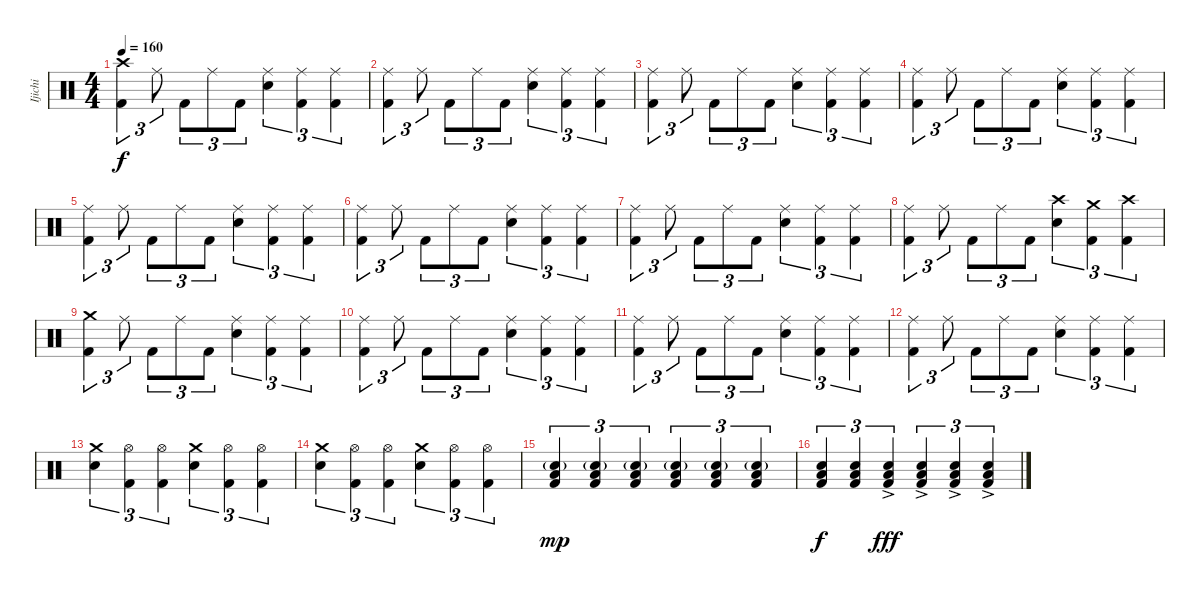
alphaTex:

\track ("Ijichi" "Ijichi") {instrument percussion}
\staff {score}
\articulation defaults
\ts (4 4)
\tempo 160
\clef neutral
\ks c
("Crash high (hit)" "Kick (hit) 2").4{tu (3 2) dy f} "Ride (middle)".8{tu (3 2)} "Kick (hit) 2".8{tu (3 2)} "Ride (middle)".8{tu (3 2)} "Kick (hit) 2".8{tu (3 2)} ("Ride (middle)" "Electric Snare (hit)").4{tu (3 2)} ("Ride (middle)" "Kick (hit) 2").4{tu (3 2)} ("Ride (middle)" "Kick (hit) 2").4{tu (3 2)} |
("Ride (middle)" "Kick (hit) 2").4{tu (3 2)} "Ride (middle)".8{tu (3 2)} "Kick (hit) 2".8{tu (3 2)} "Ride (middle)".8{tu (3 2)} "Kick (hit) 2".8{tu (3 2)} ("Ride (middle)" "Electric Snare (hit)").4{tu (3 2)} ("Ride (middle)" "Kick (hit) 2").4{tu (3 2)} ("Ride (middle)" "Kick (hit) 2").4{tu (3 2)} |
("Ride (middle)" "Kick (hit) 2").4{tu (3 2)} "Ride (middle)".8{tu (3 2)} "Kick (hit) 2".8{tu (3 2)} "Ride (middle)".8{tu (3 2)} "Kick (hit) 2".8{tu (3 2)} ("Ride (middle)" "Electric Snare (hit)").4{tu (3 2)} ("Ride (middle)" "Kick (hit) 2").4{tu (3 2)} ("Ride (middle)" "Kick (hit) 2").4{tu (3 2)} |
("Ride (middle)" "Kick (hit) 2").4{tu (3 2)} "Ride (middle)".8{tu (3 2)} "Kick (hit) 2".8{tu (3 2)} "Ride (middle)".8{tu (3 2)} "Kick (hit) 2".8{tu (3 2)} ("Ride (middle)" "Electric Snare (hit)").4{tu (3 2)} ("Ride (middle)" "Kick (hit) 2").4{tu (3 2)} ("Ride (middle)" "Kick (hit) 2").4{tu (3 2)} |
("Ride (middle)" "Kick (hit) 2").4{tu (3 2)} "Ride (middle)".8{tu (3 2)} "Kick (hit) 2".8{tu (3 2)} "Ride (middle)".8{tu (3 2)} "Kick (hit) 2".8{tu (3 2)} ("Ride (middle)" "Electric Snare (hit)").4{tu (3 2)} ("Ride (middle)" "Kick (hit) 2").4{tu (3 2)} ("Ride (middle)" "Kick (hit) 2").4{tu (3 2)} |
("Ride (middle)" "Kick (hit) 2").4{tu (3 2)} "Ride (middle)".8{tu (3 2)} "Kick (hit) 2".8{tu (3 2)} "Ride (middle)".8{tu (3 2)} "Kick (hit) 2".8{tu (3 2)} ("Ride (middle)" "Electric Snare (hit)").4{tu (3 2)} ("Ride (middle)" "Kick (hit) 2").4{tu (3 2)} ("Ride (middle)" "Kick (hit) 2").4{tu (3 2)} |
("Ride (middle)" "Kick (hit) 2").4{tu (3 2)} "Ride (middle)".8{tu (3 2)} "Kick (hit) 2".8{tu (3 2)} "Ride (middle)".8{tu (3 2)} "Kick (hit) 2".8{tu (3 2)} ("Ride (middle)" "Electric Snare (hit)").4{tu (3 2)} ("Ride (middle)" "Kick (hit) 2").4{tu (3 2)} ("Ride (middle)" "Kick (hit) 2").4{tu (3 2)} |
("Ride (middle)" "Kick (hit) 2").4{tu (3 2)} "Ride (middle)".8{tu (3 2)} "Kick (hit) 2".8{tu (3 2)} "Ride (middle)".8{tu (3 2)} "Kick (hit) 2".8{tu (3 2)} ("Crash high (hit)" "Electric Snare (hit)").4{tu (3 2)} ("Crash medium (hit)" "Kick (hit) 2").4{tu (3 2)} ("Crash high (hit)" "Kick (hit) 2").4{tu (3 2)} |
("Crash medium (hit)" "Kick (hit) 2").4{tu (3 2)} "Ride (middle)".8{tu (3 2)} "Kick (hit) 2".8{tu (3 2)} "Ride (middle)".8{tu (3 2)} "Kick (hit) 2".8{tu (3 2)} ("Ride (middle)" "Electric Snare (hit)").4{tu (3 2)} ("Ride (middle)" "Kick (hit) 2").4{tu (3 2)} ("Ride (middle)" "Kick (hit) 2").4{tu (3 2)} |
("Ride (middle)" "Kick (hit) 2").4{tu (3 2)} "Ride (middle)".8{tu (3 2)} "Kick (hit) 2".8{tu (3 2)} "Ride (middle)".8{tu (3 2)} "Kick (hit) 2".8{tu (3 2)} ("Ride (middle)" "Electric Snare (hit)").4{tu (3 2)} ("Ride (middle)" "Kick (hit) 2").4{tu (3 2)} ("Ride (middle)" "Kick (hit) 2").4{tu (3 2)} |
("Ride (middle)" "Kick (hit) 2").4{tu (3 2)} "Ride (middle)".8{tu (3 2)} "Kick (hit) 2".8{tu (3 2)} "Ride (middle)".8{tu (3 2)} "Kick (hit) 2".8{tu (3 2)} ("Ride (middle)" "Electric Snare (hit)").4{tu (3 2)} ("Ride (middle)" "Kick (hit) 2").4{tu (3 2)} ("Ride (middle)" "Kick (hit) 2").4{tu (3 2)} |
("Ride (middle)" "Kick (hit) 2").4{tu (3 2)} "Ride (middle)".8{tu (3 2)} "Kick (hit) 2".8{tu (3 2)} "Ride (middle)".8{tu (3 2)} "Kick (hit) 2".8{tu (3 2)} ("Ride (middle)" "Electric Snare (hit)").4{tu (3 2)} ("Ride (middle)" "Kick (hit) 2").4{tu (3 2)} ("Ride (middle)" "Kick (hit) 2").4{tu (3 2)} |
("Crash medium (hit)" "Electric Snare (hit)").4{tu (3 2)} ("Hi-Hat (open)" "Kick (hit) 2").4{tu (3 2)} ("Hi-Hat (open)" "Kick (hit) 2").4{tu (3 2)} ("Crash medium (hit)" "Electric Snare (hit)").4{tu (3 2)} ("Hi-Hat (open)" "Kick (hit) 2").4{tu (3 2)} ("Hi-Hat (open)" "Kick (hit) 2").4{tu (3 2)} |
("Crash medium (hit)" "Electric Snare (hit)").4{tu (3 2)} ("Hi-Hat (open)" "Kick (hit) 2").4{tu (3 2)} ("Hi-Hat (open)" "Kick (hit) 2").4{tu (3 2)} ("Crash medium (hit)" "Electric Snare (hit)").4{tu (3 2)} ("Hi-Hat (open)" "Kick (hit) 2").4{tu (3 2)} ("Hi-Hat (open)" "Kick (hit) 2").4{tu (3 2)} |
("Low Floor Tom (hit)" "Electric Snare (hit)"{g} "Kick (hit) 2").4{tu (3 2) dy mp} ("Low Floor Tom (hit)" "Electric Snare (hit)"{g} "Kick (hit) 2").4{tu (3 2)} ("Low Floor Tom (hit)" "Electric Snare (hit)"{g} "Kick (hit) 2").4{tu (3 2)} ("Low Floor Tom (hit)" "Electric Snare (hit)"{g} "Kick (hit) 2").4{tu (3 2)} ("Low Floor Tom (hit)" "Electric Snare (hit)"{g} "Kick (hit) 2").4{tu (3 2)} ("Low Floor Tom (hit)" "Electric Snare (hit)"{g} "Kick (hit) 2").4{tu (3 2)} |
("Low Floor Tom (hit)" "Electric Snare (hit)" "Kick (hit) 2").4{tu (3 2) dy f} ("Low Floor Tom (hit)" "Electric Snare (hit)" "Kick (hit) 2").4{tu (3 2)} ("Low Floor Tom (hit)" "Electric Snare (hit)"{ac} "Kick (hit) 2").4{tu (3 2) dy fff} ("Low Floor Tom (hit)" "Electric Snare (hit)"{ac} "Kick (hit) 2").4{tu (3 2)} ("Low Floor Tom (hit)" "Electric Snare (hit)"{ac} "Kick (hit) 2").4{tu (3 2)} ("Low Floor Tom (hit)" "Electric Snare (hit)"{ac} "Kick (hit) 2").4{tu (3 2)}
